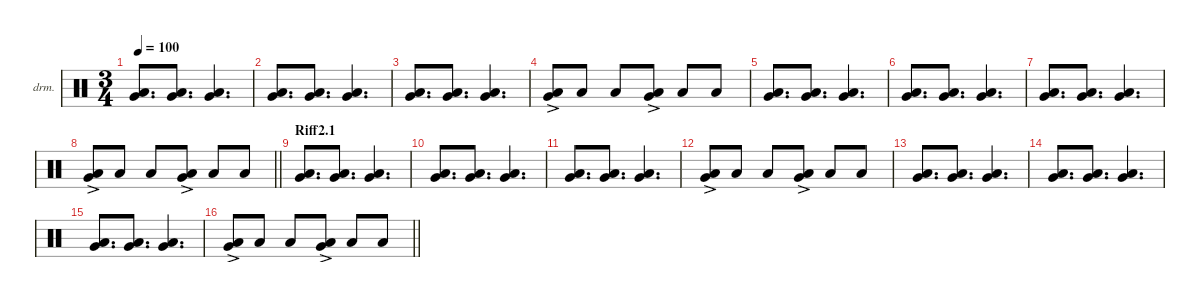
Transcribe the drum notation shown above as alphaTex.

\defaultSystemsLayout 4
\hideDynamics
\bracketExtendMode nobrackets
\firstSystemTrackNameOrientation horizontal
\otherSystemsTrackNameOrientation horizontal
\track ("Dondervuyscht" "drm.") {instrument percussion}
\staff {score}
\articulation defaults
\ts (3 4)
\tempo 100
\clef neutral
\ks c
("Very Low Tom (hit)" "Low Floor Tom (hit)").8{d dy f} ("Very Low Tom (hit)" "Low Floor Tom (hit)").8{d} ("Very Low Tom (hit)" "Low Floor Tom (hit)").4{d} |
("Very Low Tom (hit)" "Low Floor Tom (hit)").8{d} ("Very Low Tom (hit)" "Low Floor Tom (hit)").8{d} ("Very Low Tom (hit)" "Low Floor Tom (hit)").4{d} |
("Very Low Tom (hit)" "Low Floor Tom (hit)").8{d} ("Very Low Tom (hit)" "Low Floor Tom (hit)").8{d} ("Very Low Tom (hit)" "Low Floor Tom (hit)").4{d} |
("Very Low Tom (hit)"{ac} "Low Floor Tom (hit)"{ac}).8 "Low Floor Tom (hit)".8 "Low Floor Tom (hit)".8 ("Very Low Tom (hit)"{ac} "Low Floor Tom (hit)"{ac}).8 "Low Floor Tom (hit)".8 "Low Floor Tom (hit)".8 |
("Very Low Tom (hit)" "Low Floor Tom (hit)").8{d} ("Very Low Tom (hit)" "Low Floor Tom (hit)").8{d} ("Very Low Tom (hit)" "Low Floor Tom (hit)").4{d} |
("Very Low Tom (hit)" "Low Floor Tom (hit)").8{d} ("Very Low Tom (hit)" "Low Floor Tom (hit)").8{d} ("Very Low Tom (hit)" "Low Floor Tom (hit)").4{d} |
("Very Low Tom (hit)" "Low Floor Tom (hit)").8{d} ("Very Low Tom (hit)" "Low Floor Tom (hit)").8{d} ("Very Low Tom (hit)" "Low Floor Tom (hit)").4{d} |
\barLineRight lightlight
("Very Low Tom (hit)"{ac} "Low Floor Tom (hit)"{ac}).8 "Low Floor Tom (hit)".8 "Low Floor Tom (hit)".8 ("Very Low Tom (hit)"{ac} "Low Floor Tom (hit)"{ac}).8 "Low Floor Tom (hit)".8 "Low Floor Tom (hit)".8 |
\section ("" "Riff2.1")
("Very Low Tom (hit)" "Low Floor Tom (hit)").8{d} ("Very Low Tom (hit)" "Low Floor Tom (hit)").8{d} ("Very Low Tom (hit)" "Low Floor Tom (hit)").4{d} |
("Very Low Tom (hit)" "Low Floor Tom (hit)").8{d} ("Very Low Tom (hit)" "Low Floor Tom (hit)").8{d} ("Very Low Tom (hit)" "Low Floor Tom (hit)").4{d} |
("Very Low Tom (hit)" "Low Floor Tom (hit)").8{d} ("Very Low Tom (hit)" "Low Floor Tom (hit)").8{d} ("Very Low Tom (hit)" "Low Floor Tom (hit)").4{d} |
("Very Low Tom (hit)"{ac} "Low Floor Tom (hit)"{ac}).8 "Low Floor Tom (hit)".8 "Low Floor Tom (hit)".8 ("Very Low Tom (hit)"{ac} "Low Floor Tom (hit)"{ac}).8 "Low Floor Tom (hit)".8 "Low Floor Tom (hit)".8 |
("Very Low Tom (hit)" "Low Floor Tom (hit)").8{d} ("Very Low Tom (hit)" "Low Floor Tom (hit)").8{d} ("Very Low Tom (hit)" "Low Floor Tom (hit)").4{d} |
("Very Low Tom (hit)" "Low Floor Tom (hit)").8{d} ("Very Low Tom (hit)" "Low Floor Tom (hit)").8{d} ("Very Low Tom (hit)" "Low Floor Tom (hit)").4{d} |
("Very Low Tom (hit)" "Low Floor Tom (hit)").8{d} ("Very Low Tom (hit)" "Low Floor Tom (hit)").8{d} ("Very Low Tom (hit)" "Low Floor Tom (hit)").4{d} |
\barLineRight lightlight
("Very Low Tom (hit)"{ac} "Low Floor Tom (hit)"{ac}).8 "Low Floor Tom (hit)".8 "Low Floor Tom (hit)".8 ("Very Low Tom (hit)"{ac} "Low Floor Tom (hit)"{ac}).8 "Low Floor Tom (hit)".8 "Low Floor Tom (hit)".8
